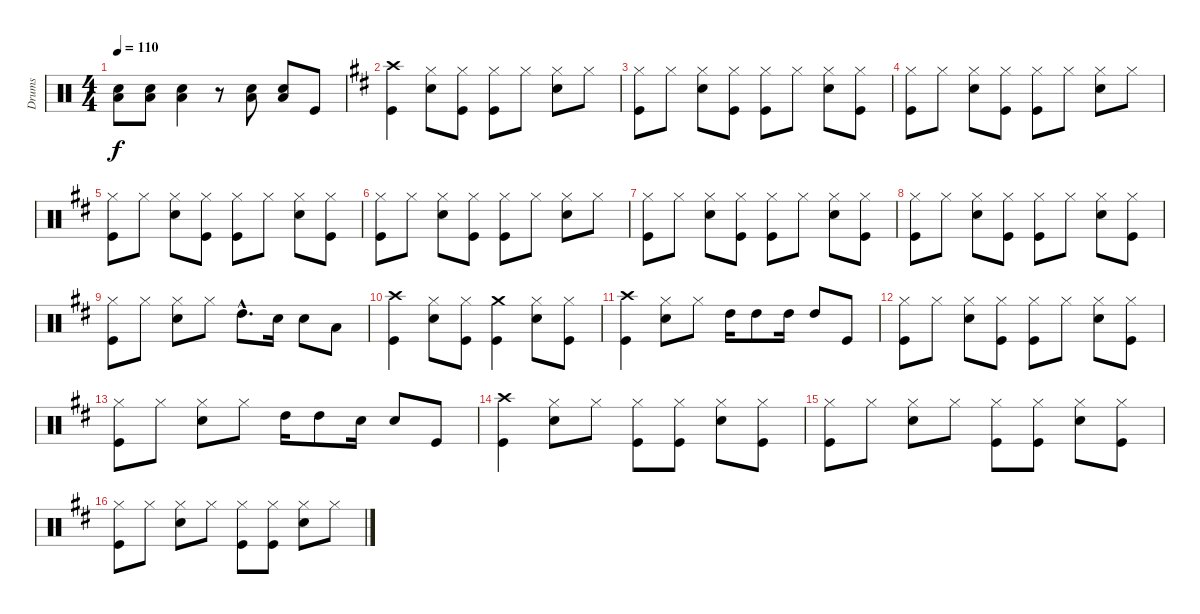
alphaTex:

\track ("Drums" "Drums") {instrument percussion}
\staff {score}
\articulation defaults
\ts (4 4)
\tempo 110
\clef neutral
\ks c
("Low Tom (hit)" "Snare (hit) 2").8{dy f} ("Low Tom (hit)" "Snare (hit) 2").8 ("Low Tom (hit)" "Snare (hit) 2").4 r.8 ("Low Tom (hit)" "Snare (hit) 2").8 ("Low Tom (hit)" "Snare (hit) 2").8 "Kick (hit)".8 |
\ks d
("Crash high (hit)" "Kick (hit)").4 ("Hi-Hat (closed)" "Snare (hit) 2").8 ("Hi-Hat (closed)" "Kick (hit)").8 ("Hi-Hat (closed)" "Kick (hit)").8 "Hi-Hat (closed)".8 ("Hi-Hat (closed)" "Snare (hit) 2").8 "Hi-Hat (closed)".8 |
("Hi-Hat (closed)" "Kick (hit)").8 "Hi-Hat (closed)".8 ("Hi-Hat (closed)" "Snare (hit) 2").8 ("Hi-Hat (closed)" "Kick (hit)").8 ("Hi-Hat (closed)" "Kick (hit)").8 "Hi-Hat (closed)".8 ("Hi-Hat (closed)" "Snare (hit) 2").8 ("Hi-Hat (closed)" "Kick (hit)").8 |
("Hi-Hat (closed)" "Kick (hit)").8 "Hi-Hat (closed)".8 ("Hi-Hat (closed)" "Snare (hit) 2").8 ("Hi-Hat (closed)" "Kick (hit)").8 ("Hi-Hat (closed)" "Kick (hit)").8 "Hi-Hat (closed)".8 ("Hi-Hat (closed)" "Snare (hit) 2").8 "Hi-Hat (closed)".8 |
("Hi-Hat (closed)" "Kick (hit)").8 "Hi-Hat (closed)".8 ("Hi-Hat (closed)" "Snare (hit) 2").8 ("Hi-Hat (closed)" "Kick (hit)").8 ("Hi-Hat (closed)" "Kick (hit)").8 "Hi-Hat (closed)".8 ("Hi-Hat (closed)" "Snare (hit) 2").8 ("Hi-Hat (closed)" "Kick (hit)").8 |
("Hi-Hat (closed)" "Kick (hit)").8 "Hi-Hat (closed)".8 ("Hi-Hat (closed)" "Snare (hit) 2").8 ("Hi-Hat (closed)" "Kick (hit)").8 ("Hi-Hat (closed)" "Kick (hit)").8 "Hi-Hat (closed)".8 ("Hi-Hat (closed)" "Snare (hit) 2").8 "Hi-Hat (closed)".8 |
("Hi-Hat (closed)" "Kick (hit)").8 "Hi-Hat (closed)".8 ("Hi-Hat (closed)" "Snare (hit) 2").8 ("Hi-Hat (closed)" "Kick (hit)").8 ("Hi-Hat (closed)" "Kick (hit)").8 "Hi-Hat (closed)".8 ("Hi-Hat (closed)" "Snare (hit) 2").8 ("Hi-Hat (closed)" "Kick (hit)").8 |
("Hi-Hat (closed)" "Kick (hit)").8 "Hi-Hat (closed)".8 ("Hi-Hat (closed)" "Snare (hit) 2").8 ("Hi-Hat (closed)" "Kick (hit)").8 ("Hi-Hat (closed)" "Kick (hit)").8 "Hi-Hat (closed)".8 ("Hi-Hat (closed)" "Snare (hit) 2").8 ("Hi-Hat (closed)" "Kick (hit)").8 |
("Hi-Hat (closed)" "Kick (hit)").8 "Hi-Hat (closed)".8 ("Hi-Hat (closed)" "Snare (hit) 2").8 "Hi-Hat (closed)".8 "High Tom (hit)"{hac}.8{d} "Snare (hit) 2".16 "Snare (hit) 2".8 "Low Tom (hit)".8 |
("Crash high (hit)" "Kick (hit)").4 ("Hi-Hat (closed)" "Snare (hit) 2").8 ("Hi-Hat (closed)" "Kick (hit)").8 ("Crash medium (hit)" "Kick (hit)").4 ("Hi-Hat (closed)" "Snare (hit) 2").8 ("Hi-Hat (closed)" "Kick (hit)").8 |
("Crash high (hit)" "Kick (hit)").4 ("Hi-Hat (closed)" "Snare (hit) 2").8 "Hi-Hat (closed)".8 "High Tom (hit)".16 "High Tom (hit)".8 "High Tom (hit)".16 "High Tom (hit)".8 "Kick (hit)".8 |
("Hi-Hat (closed)" "Kick (hit)").8 "Hi-Hat (closed)".8 ("Hi-Hat (closed)" "Snare (hit) 2").8 ("Hi-Hat (closed)" "Kick (hit)").8 ("Hi-Hat (closed)" "Kick (hit)").8 "Hi-Hat (closed)".8 ("Hi-Hat (closed)" "Snare (hit) 2").8 ("Hi-Hat (closed)" "Kick (hit)").8 |
("Hi-Hat (closed)" "Kick (hit)").8 "Hi-Hat (closed)".8 ("Hi-Hat (closed)" "Snare (hit) 2").8 "Hi-Hat (closed)".8 "High Tom (hit)".16 "High Tom (hit)".8 "Snare (hit) 2".16 "Snare (hit) 2".8 "Kick (hit)".8 |
("Crash high (hit)" "Kick (hit)").4 ("Hi-Hat (closed)" "Snare (hit) 2").8 "Hi-Hat (closed)".8 ("Hi-Hat (closed)" "Kick (hit)").8 ("Hi-Hat (closed)" "Kick (hit)").8 ("Hi-Hat (closed)" "Snare (hit) 2").8 ("Hi-Hat (closed)" "Kick (hit)").8 |
("Hi-Hat (closed)" "Kick (hit)").8 "Hi-Hat (closed)".8 ("Hi-Hat (closed)" "Snare (hit) 2").8 "Hi-Hat (closed)".8 ("Hi-Hat (closed)" "Kick (hit)").8 ("Hi-Hat (closed)" "Kick (hit)").8 ("Hi-Hat (closed)" "Snare (hit) 2").8 ("Hi-Hat (closed)" "Kick (hit)").8 |
("Hi-Hat (closed)" "Kick (hit)").8 "Hi-Hat (closed)".8 ("Hi-Hat (closed)" "Snare (hit) 2").8 "Hi-Hat (closed)".8 ("Hi-Hat (closed)" "Kick (hit)").8 ("Hi-Hat (closed)" "Kick (hit)").8 ("Hi-Hat (closed)" "Snare (hit) 2").8 "Hi-Hat (closed)".8
